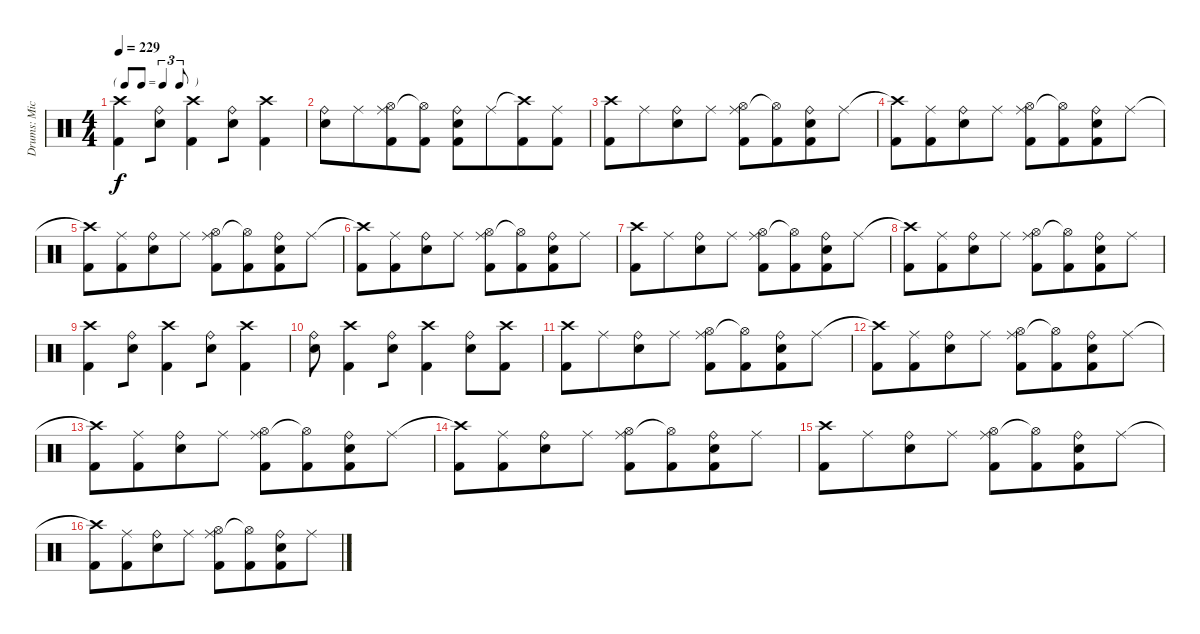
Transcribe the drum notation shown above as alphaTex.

\track ("Drums: Mick" "Drums: Mic") {instrument percussion}
\staff {score}
\articulation defaults
\ts (4 4)
\tf triplet8th
\tempo 229
\clef neutral
\ks c
("Crash high (hit)" "Kick (hit) 2").4{dy f beam merge} ("Ride (bell)" "Snare (hit) 2").8 ("Crash high (hit)" "Kick (hit) 2").4{beam merge} ("Ride (bell)" "Snare (hit) 2").8 ("Crash high (hit)" "Kick (hit) 2").4 |
("Ride (bell)" "Snare (hit) 2").8 "Ride (middle)".8{beam merge} ("Ride (middle)" "Hi-Hat (open)" "Kick (hit) 2").8 ("Hi-Hat (open)"{t} "Kick (hit) 2").8{beam split} ("Ride (bell)" "Snare (hit) 2" "Kick (hit) 2").8 "Ride (middle)".8{beam merge} ("Crash high (hit)"{t} "Kick (hit) 2").8 ("Ride (middle)" "Kick (hit) 2").8 |
("Crash high (hit)" "Kick (hit) 2").8 "Ride (middle)".8{beam merge} ("Ride (bell)" "Snare (hit) 2").8 "Ride (middle)".8 ("Ride (middle)" "Hi-Hat (open)" "Kick (hit) 2").8 ("Hi-Hat (open)"{t} "Kick (hit) 2").8{beam merge} ("Ride (bell)" "Snare (hit) 2" "Kick (hit) 2").8 "Ride (middle)".8 |
("Crash high (hit)"{t} "Kick (hit) 2").8 ("Ride (middle)" "Kick (hit) 2").8{beam merge} ("Ride (bell)" "Snare (hit) 2").8 "Ride (middle)".8 ("Ride (middle)" "Hi-Hat (open)" "Kick (hit) 2").8 ("Hi-Hat (open)"{t} "Kick (hit) 2").8{beam merge} ("Ride (bell)" "Snare (hit) 2" "Kick (hit) 2").8 "Ride (middle)".8 |
("Crash high (hit)"{t} "Kick (hit) 2").8 ("Ride (middle)" "Kick (hit) 2").8{beam merge} ("Ride (bell)" "Snare (hit) 2").8 "Ride (middle)".8 ("Ride (middle)" "Hi-Hat (open)" "Kick (hit) 2").8 ("Hi-Hat (open)"{t} "Kick (hit) 2").8{beam merge} ("Ride (bell)" "Snare (hit) 2" "Kick (hit) 2").8 "Ride (middle)".8 |
("Crash high (hit)"{t} "Kick (hit) 2").8 ("Ride (middle)" "Kick (hit) 2").8{beam merge} ("Ride (bell)" "Snare (hit) 2").8 "Ride (middle)".8 ("Ride (middle)" "Hi-Hat (open)" "Kick (hit) 2").8 ("Hi-Hat (open)"{t} "Kick (hit) 2").8{beam merge} ("Ride (bell)" "Snare (hit) 2" "Kick (hit) 2").8 "Ride (middle)".8 |
("Crash high (hit)" "Kick (hit) 2").8 "Ride (middle)".8{beam merge} ("Ride (bell)" "Snare (hit) 2").8 "Ride (middle)".8 ("Ride (middle)" "Hi-Hat (open)" "Kick (hit) 2").8 ("Hi-Hat (open)"{t} "Kick (hit) 2").8{beam merge} ("Ride (bell)" "Snare (hit) 2" "Kick (hit) 2").8 "Ride (middle)".8 |
("Crash high (hit)"{t} "Kick (hit) 2").8 ("Ride (middle)" "Kick (hit) 2").8{beam merge} ("Ride (bell)" "Snare (hit) 2").8 "Ride (middle)".8 ("Ride (middle)" "Hi-Hat (open)" "Kick (hit) 2").8 ("Hi-Hat (open)"{t} "Kick (hit) 2").8{beam merge} ("Ride (bell)" "Snare (hit) 2" "Kick (hit) 2").8 "Ride (middle)".8 |
("Crash high (hit)" "Kick (hit) 2").4{beam merge} ("Ride (bell)" "Snare (hit) 2").8 ("Crash high (hit)" "Kick (hit) 2").4{beam merge} ("Ride (bell)" "Snare (hit) 2").8 ("Crash high (hit)" "Kick (hit) 2").4 |
("Ride (bell)" "Snare (hit) 2").8 ("Crash high (hit)" "Kick (hit) 2").4{beam merge} ("Ride (bell)" "Snare (hit) 2").8 ("Crash high (hit)" "Kick (hit) 2").4{beam merge} ("Ride (bell)" "Snare (hit) 2").8 ("Crash high (hit)" "Kick (hit) 2").8 |
("Crash high (hit)" "Kick (hit) 2").8 "Ride (middle)".8{beam merge} ("Ride (bell)" "Snare (hit) 2").8 "Ride (middle)".8 ("Ride (middle)" "Hi-Hat (open)" "Kick (hit) 2").8 ("Hi-Hat (open)"{t} "Kick (hit) 2").8{beam merge} ("Ride (bell)" "Snare (hit) 2" "Kick (hit) 2").8 "Ride (middle)".8 |
("Crash high (hit)"{t} "Kick (hit) 2").8 ("Ride (middle)" "Kick (hit) 2").8{beam merge} ("Ride (bell)" "Snare (hit) 2").8 "Ride (middle)".8 ("Ride (middle)" "Hi-Hat (open)" "Kick (hit) 2").8 ("Hi-Hat (open)"{t} "Kick (hit) 2").8{beam merge} ("Ride (bell)" "Snare (hit) 2" "Kick (hit) 2").8 "Ride (middle)".8 |
("Crash high (hit)"{t} "Kick (hit) 2").8 ("Ride (middle)" "Kick (hit) 2").8{beam merge} ("Ride (bell)" "Snare (hit) 2").8 "Ride (middle)".8 ("Ride (middle)" "Hi-Hat (open)" "Kick (hit) 2").8 ("Hi-Hat (open)"{t} "Kick (hit) 2").8{beam merge} ("Ride (bell)" "Snare (hit) 2" "Kick (hit) 2").8 "Ride (middle)".8 |
("Crash high (hit)"{t} "Kick (hit) 2").8 ("Ride (middle)" "Kick (hit) 2").8{beam merge} ("Ride (bell)" "Snare (hit) 2").8 "Ride (middle)".8 ("Ride (middle)" "Hi-Hat (open)" "Kick (hit) 2").8 ("Hi-Hat (open)"{t} "Kick (hit) 2").8{beam merge} ("Ride (bell)" "Snare (hit) 2" "Kick (hit) 2").8 "Ride (middle)".8 |
("Crash high (hit)" "Kick (hit) 2").8 "Ride (middle)".8{beam merge} ("Ride (bell)" "Snare (hit) 2").8 "Ride (middle)".8 ("Ride (middle)" "Hi-Hat (open)" "Kick (hit) 2").8 ("Hi-Hat (open)"{t} "Kick (hit) 2").8{beam merge} ("Ride (bell)" "Snare (hit) 2" "Kick (hit) 2").8 "Ride (middle)".8 |
("Crash high (hit)"{t} "Kick (hit) 2").8 ("Ride (middle)" "Kick (hit) 2").8{beam merge} ("Ride (bell)" "Snare (hit) 2").8 "Ride (middle)".8 ("Ride (middle)" "Hi-Hat (open)" "Kick (hit) 2").8 ("Hi-Hat (open)"{t} "Kick (hit) 2").8{beam merge} ("Ride (bell)" "Snare (hit) 2" "Kick (hit) 2").8 "Ride (middle)".8
